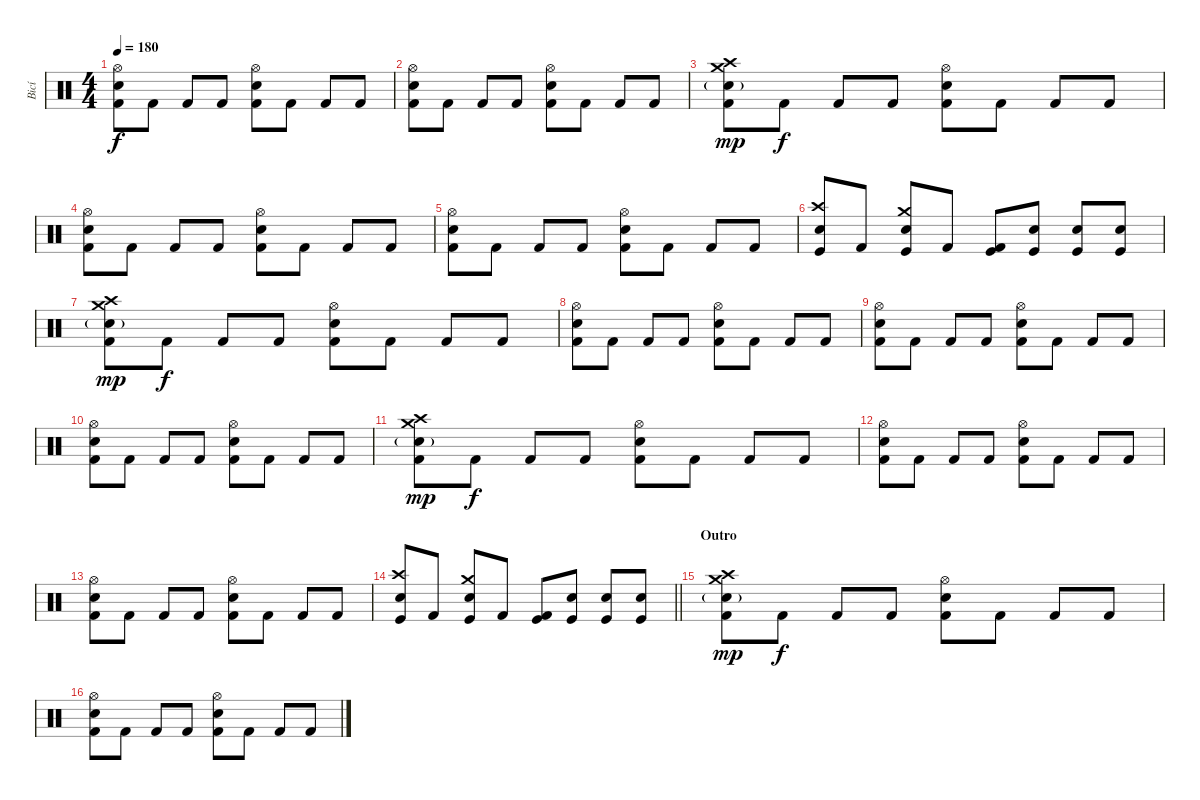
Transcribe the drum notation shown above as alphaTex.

\track ("Bicí" "Bicí") {instrument percussion}
\staff {score}
\articulation defaults
\ts (4 4)
\tempo 180
\clef neutral
\ks c
("Hi-Hat (open)" "Electric Snare (hit)" "Kick (hit) 2").8{dy f} "Kick (hit) 2".8 "Kick (hit) 2".8 "Kick (hit) 2".8 ("Hi-Hat (open)" "Electric Snare (hit)" "Kick (hit) 2").8 "Kick (hit) 2".8 "Kick (hit) 2".8 "Kick (hit) 2".8 |
("Hi-Hat (open)" "Electric Snare (hit)" "Kick (hit) 2").8 "Kick (hit) 2".8 "Kick (hit) 2".8 "Kick (hit) 2".8 ("Hi-Hat (open)" "Electric Snare (hit)" "Kick (hit) 2").8 "Kick (hit) 2".8 "Kick (hit) 2".8 "Kick (hit) 2".8 |
("Crash high (hit)" "Crash medium (hit)" "Electric Snare (hit)"{g} "Kick (hit) 2").8{dy mp} "Kick (hit) 2".8{dy f} "Kick (hit) 2".8 "Kick (hit) 2".8 ("Hi-Hat (open)" "Electric Snare (hit)" "Kick (hit) 2").8 "Kick (hit) 2".8 "Kick (hit) 2".8 "Kick (hit) 2".8 |
("Hi-Hat (open)" "Electric Snare (hit)" "Kick (hit) 2").8 "Kick (hit) 2".8 "Kick (hit) 2".8 "Kick (hit) 2".8 ("Hi-Hat (open)" "Electric Snare (hit)" "Kick (hit) 2").8 "Kick (hit) 2".8 "Kick (hit) 2".8 "Kick (hit) 2".8 |
("Hi-Hat (open)" "Electric Snare (hit)" "Kick (hit) 2").8 "Kick (hit) 2".8 "Kick (hit) 2".8 "Kick (hit) 2".8 ("Hi-Hat (open)" "Electric Snare (hit)" "Kick (hit) 2").8 "Kick (hit) 2".8 "Kick (hit) 2".8 "Kick (hit) 2".8 |
("Crash high (hit)" "Kick (hit)" "Electric Snare (hit)").8 "Kick (hit) 2".8 ("Crash medium (hit)" "Kick (hit)" "Electric Snare (hit)").8 "Kick (hit) 2".8 ("Kick (hit)" "Kick (hit) 2").8 ("Kick (hit)" "Electric Snare (hit)").8 ("Kick (hit)" "Electric Snare (hit)").8 ("Kick (hit)" "Electric Snare (hit)").8 |
("Crash high (hit)" "Crash medium (hit)" "Electric Snare (hit)"{g} "Kick (hit) 2").8{dy mp} "Kick (hit) 2".8{dy f} "Kick (hit) 2".8 "Kick (hit) 2".8 ("Hi-Hat (open)" "Electric Snare (hit)" "Kick (hit) 2").8 "Kick (hit) 2".8 "Kick (hit) 2".8 "Kick (hit) 2".8 |
("Hi-Hat (open)" "Electric Snare (hit)" "Kick (hit) 2").8 "Kick (hit) 2".8 "Kick (hit) 2".8 "Kick (hit) 2".8 ("Hi-Hat (open)" "Electric Snare (hit)" "Kick (hit) 2").8 "Kick (hit) 2".8 "Kick (hit) 2".8 "Kick (hit) 2".8 |
("Hi-Hat (open)" "Electric Snare (hit)" "Kick (hit) 2").8 "Kick (hit) 2".8 "Kick (hit) 2".8 "Kick (hit) 2".8 ("Hi-Hat (open)" "Electric Snare (hit)" "Kick (hit) 2").8 "Kick (hit) 2".8 "Kick (hit) 2".8 "Kick (hit) 2".8 |
("Hi-Hat (open)" "Electric Snare (hit)" "Kick (hit) 2").8 "Kick (hit) 2".8 "Kick (hit) 2".8 "Kick (hit) 2".8 ("Hi-Hat (open)" "Electric Snare (hit)" "Kick (hit) 2").8 "Kick (hit) 2".8 "Kick (hit) 2".8 "Kick (hit) 2".8 |
("Crash high (hit)" "Crash medium (hit)" "Electric Snare (hit)"{g} "Kick (hit) 2").8{dy mp} "Kick (hit) 2".8{dy f} "Kick (hit) 2".8 "Kick (hit) 2".8 ("Hi-Hat (open)" "Electric Snare (hit)" "Kick (hit) 2").8 "Kick (hit) 2".8 "Kick (hit) 2".8 "Kick (hit) 2".8 |
("Hi-Hat (open)" "Electric Snare (hit)" "Kick (hit) 2").8 "Kick (hit) 2".8 "Kick (hit) 2".8 "Kick (hit) 2".8 ("Hi-Hat (open)" "Electric Snare (hit)" "Kick (hit) 2").8 "Kick (hit) 2".8 "Kick (hit) 2".8 "Kick (hit) 2".8 |
("Hi-Hat (open)" "Electric Snare (hit)" "Kick (hit) 2").8 "Kick (hit) 2".8 "Kick (hit) 2".8 "Kick (hit) 2".8 ("Hi-Hat (open)" "Electric Snare (hit)" "Kick (hit) 2").8 "Kick (hit) 2".8 "Kick (hit) 2".8 "Kick (hit) 2".8 |
\barLineRight lightlight
("Crash high (hit)" "Kick (hit)" "Electric Snare (hit)").8 "Kick (hit) 2".8 ("Crash medium (hit)" "Kick (hit)" "Electric Snare (hit)").8 "Kick (hit) 2".8 ("Kick (hit)" "Kick (hit) 2").8 ("Kick (hit)" "Electric Snare (hit)").8 ("Kick (hit)" "Electric Snare (hit)").8 ("Kick (hit)" "Electric Snare (hit)").8 |
\section ("" "Outro")
("Crash high (hit)" "Crash medium (hit)" "Electric Snare (hit)"{g} "Kick (hit) 2").8{dy mp} "Kick (hit) 2".8{dy f} "Kick (hit) 2".8 "Kick (hit) 2".8 ("Hi-Hat (open)" "Electric Snare (hit)" "Kick (hit) 2").8 "Kick (hit) 2".8 "Kick (hit) 2".8 "Kick (hit) 2".8 |
("Hi-Hat (open)" "Electric Snare (hit)" "Kick (hit) 2").8 "Kick (hit) 2".8 "Kick (hit) 2".8 "Kick (hit) 2".8 ("Hi-Hat (open)" "Electric Snare (hit)" "Kick (hit) 2").8 "Kick (hit) 2".8 "Kick (hit) 2".8 "Kick (hit) 2".8
